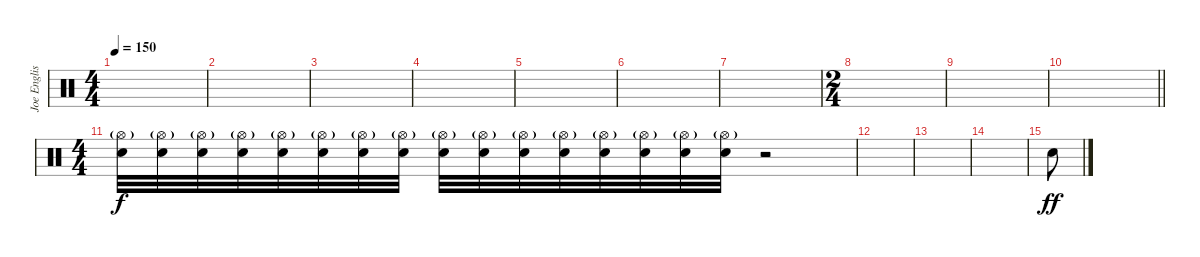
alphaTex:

\track ("Joe English" "Joe Englis") {instrument percussion}
\staff {score}
\articulation defaults
\ts (4 4)
\tempo 150
\clef neutral
\ks c
|
|
|
|
|
|
|
\ts (2 4)
|
|
\barLineRight lightlight
|
\ts (4 4)
("Hi-Hat (open)"{g} "Snare (hit) 2").32{volume 0} ("Hi-Hat (open)"{g} "Snare (hit) 2").32{volume 13} ("Hi-Hat (open)"{g} "Snare (hit) 2").32 ("Hi-Hat (open)"{g} "Snare (hit) 2").32 ("Hi-Hat (open)"{g} "Snare (hit) 2").32 ("Hi-Hat (open)"{g} "Snare (hit) 2").32 ("Hi-Hat (open)"{g} "Snare (hit) 2").32 ("Hi-Hat (open)"{g} "Snare (hit) 2").32 ("Hi-Hat (open)"{g} "Snare (hit) 2").32 ("Hi-Hat (open)"{g} "Snare (hit) 2").32 ("Hi-Hat (open)"{g} "Snare (hit) 2").32 ("Hi-Hat (open)"{g} "Snare (hit) 2").32 ("Hi-Hat (open)"{g} "Snare (hit) 2").32 ("Hi-Hat (open)"{g} "Snare (hit) 2").32 ("Hi-Hat (open)"{g} "Snare (hit) 2").32 ("Hi-Hat (open)"{g} "Snare (hit) 2").32 r.2 |
|
|
|
"Snare (hit)".8{dy ff}
